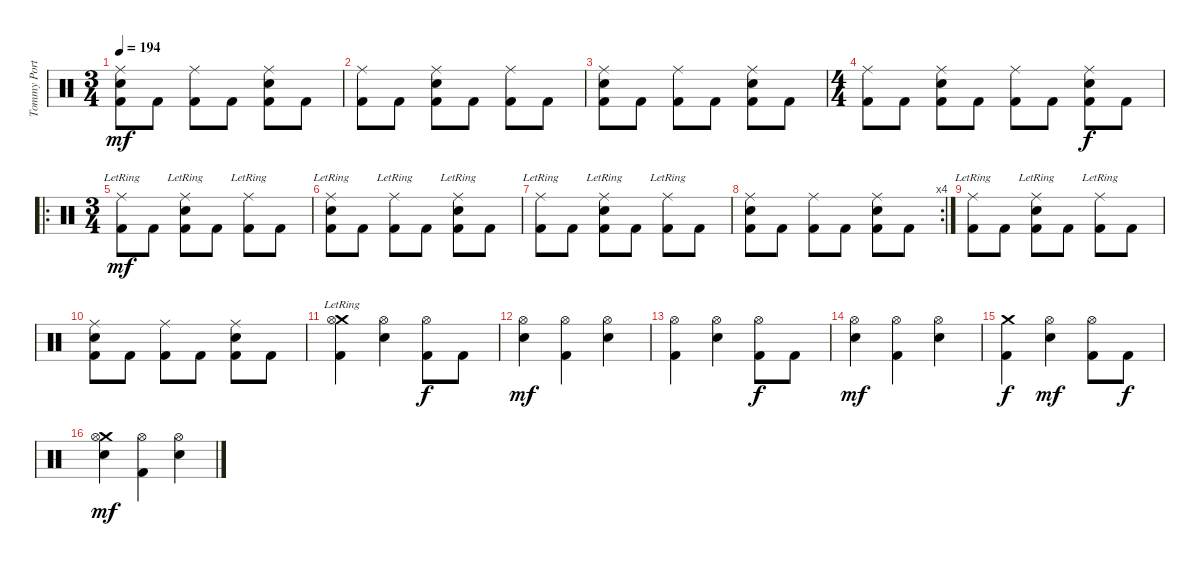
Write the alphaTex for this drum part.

\track ("Tommy Portino" "Tommy Port") {instrument percussion}
\staff {score}
\articulation defaults
\ts (3 4)
\tempo 194
\clef neutral
\ks c
("Ride (middle)" "Snare (hit) 2" "Kick (hit) 2").8{dy mf} "Kick (hit) 2".8 ("Ride (middle)" "Kick (hit) 2").8 "Kick (hit) 2".8 ("Ride (middle)" "Snare (hit) 2" "Kick (hit) 2").8 "Kick (hit) 2".8 |
("Ride (middle)" "Kick (hit) 2").8 "Kick (hit) 2".8 ("Ride (middle)" "Snare (hit) 2" "Kick (hit) 2").8 "Kick (hit) 2".8 ("Ride (middle)" "Kick (hit) 2").8 "Kick (hit) 2".8 |
("Ride (middle)" "Snare (hit) 2" "Kick (hit) 2").8 "Kick (hit) 2".8 ("Ride (middle)" "Kick (hit) 2").8 "Kick (hit) 2".8 ("Ride (middle)" "Snare (hit) 2" "Kick (hit) 2").8 "Kick (hit) 2".8 |
\ts (4 4)
("Ride (middle)" "Kick (hit) 2").8 "Kick (hit) 2".8 ("Ride (middle)" "Snare (hit) 2" "Kick (hit) 2").8 "Kick (hit) 2".8 ("Ride (middle)" "Kick (hit) 2").8 "Kick (hit) 2".8 ("Ride (middle)" "Snare (hit) 2" "Kick (hit) 2").8{dy f} "Kick (hit) 2".8 |
\ro
\ts (3 4)
("Ride (middle)"{lr} "Kick (hit) 2").8{dy mf} "Kick (hit) 2".8 ("Ride (middle)"{lr} "Snare (hit) 2" "Kick (hit) 2").8 "Kick (hit) 2".8 ("Ride (middle)"{lr} "Kick (hit) 2").8 "Kick (hit) 2".8 |
("Ride (middle)"{lr} "Snare (hit) 2" "Kick (hit) 2").8 "Kick (hit) 2".8 ("Ride (middle)"{lr} "Kick (hit) 2").8 "Kick (hit) 2".8 ("Ride (middle)"{lr} "Snare (hit) 2" "Kick (hit) 2").8 "Kick (hit) 2".8 |
("Ride (middle)"{lr} "Kick (hit) 2").8 "Kick (hit) 2".8 ("Ride (middle)"{lr} "Snare (hit) 2" "Kick (hit) 2").8 "Kick (hit) 2".8 ("Ride (middle)"{lr} "Kick (hit) 2").8 "Kick (hit) 2".8 |
\rc 4
("Ride (middle)" "Snare (hit) 2" "Kick (hit) 2").8 "Kick (hit) 2".8 ("Ride (middle)" "Kick (hit) 2").8 "Kick (hit) 2".8 ("Ride (middle)" "Snare (hit) 2" "Kick (hit) 2").8 "Kick (hit) 2".8 |
("Ride (middle)"{lr} "Kick (hit) 2").8 "Kick (hit) 2".8 ("Ride (middle)"{lr} "Snare (hit) 2" "Kick (hit) 2").8 "Kick (hit) 2".8 ("Ride (middle)"{lr} "Kick (hit) 2").8 "Kick (hit) 2".8 |
("Ride (middle)" "Snare (hit) 2" "Kick (hit) 2").8 "Kick (hit) 2".8 ("Ride (middle)" "Kick (hit) 2").8 "Kick (hit) 2".8 ("Ride (middle)" "Snare (hit) 2" "Kick (hit) 2").8 "Kick (hit) 2".8 |
("Crash medium (hit)"{lr} "Hi-Hat (open)" "Kick (hit) 2").4 ("Hi-Hat (open)" "Snare (hit) 2").4 ("Hi-Hat (open)" "Kick (hit) 2").8{dy f} "Kick (hit) 2".8 |
("Hi-Hat (open)" "Snare (hit) 2").4{dy mf} ("Hi-Hat (open)" "Kick (hit) 2").4 ("Hi-Hat (open)" "Snare (hit) 2").4 |
("Hi-Hat (open)" "Kick (hit) 2").4 ("Hi-Hat (open)" "Snare (hit) 2").4 ("Hi-Hat (open)" "Kick (hit) 2").8{dy f} "Kick (hit) 2".8 |
("Hi-Hat (open)" "Snare (hit) 2").4{dy mf} ("Hi-Hat (open)" "Kick (hit) 2").4 ("Hi-Hat (open)" "Snare (hit) 2").4 |
("Crash medium (hit)" "Kick (hit) 2").4{dy f} ("Snare (hit) 2" "Hi-Hat (open)").4{dy mf} ("Hi-Hat (open)" "Kick (hit) 2").8 "Kick (hit) 2".8{dy f} |
("Crash medium (hit)" "Snare (hit) 2" "Hi-Hat (open)").4{dy mf} ("Hi-Hat (open)" "Kick (hit) 2").4 ("Snare (hit) 2" "Hi-Hat (open)").4
